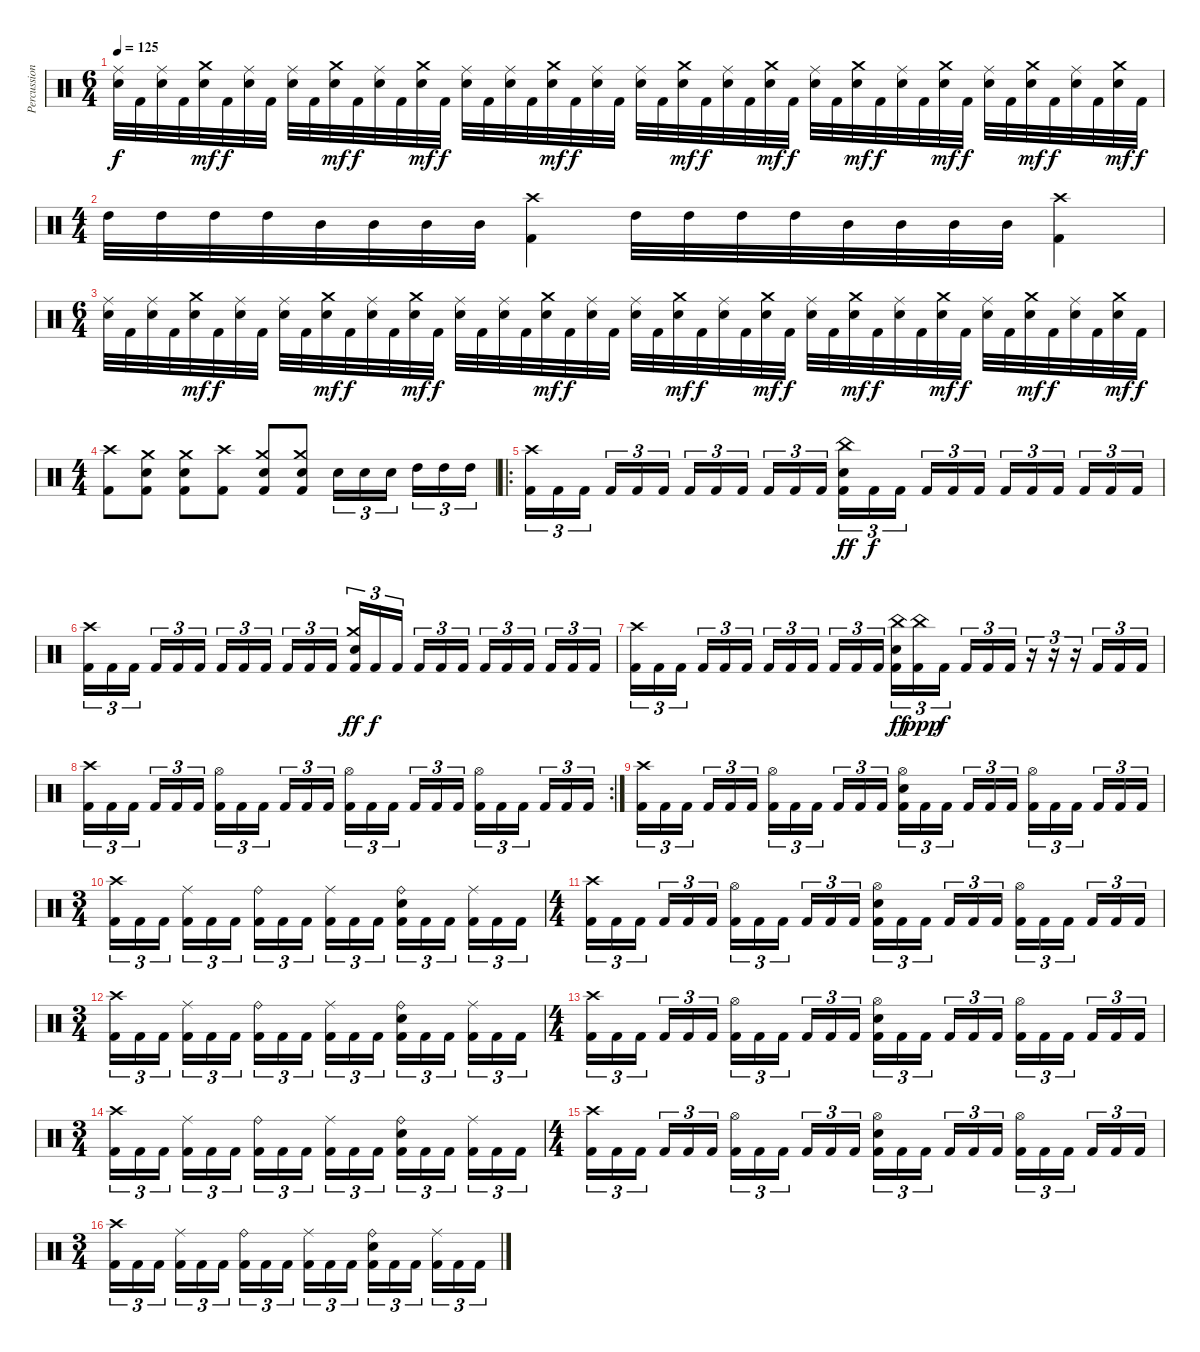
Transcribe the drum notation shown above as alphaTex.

\track ("Percussion" "Percussion") {instrument percussion}
\staff {score}
\articulation defaults
\ts (6 4)
\tempo 125
\clef neutral
\ks c
("Snare (hit) 2" "Ride (middle)").32{dy f} "Kick (hit) 2".32 ("Snare (hit) 2" "Ride (middle)").32 "Kick (hit) 2".32 ("Snare (hit) 2" "Crash medium (hit)").32{dy mf} "Kick (hit) 2".32{dy f} ("Snare (hit) 2" "Ride (middle)").32 "Kick (hit) 2".32 ("Snare (hit) 2" "Ride (middle)").32 "Kick (hit) 2".32 ("Snare (hit) 2" "Crash medium (hit)").32{dy mf} "Kick (hit) 2".32{dy f} ("Snare (hit) 2" "Ride (middle)").32 "Kick (hit) 2".32 ("Snare (hit) 2" "Crash medium (hit)").32{dy mf} "Kick (hit) 2".32{dy f} ("Snare (hit) 2" "Ride (middle)").32 "Kick (hit) 2".32 ("Snare (hit) 2" "Ride (middle)").32 "Kick (hit) 2".32 ("Snare (hit) 2" "Crash medium (hit)").32{dy mf} "Kick (hit) 2".32{dy f} ("Snare (hit) 2" "Ride (middle)").32 "Kick (hit) 2".32 ("Snare (hit) 2" "Ride (middle)").32 "Kick (hit) 2".32 ("Snare (hit) 2" "Crash medium (hit)").32{dy mf} "Kick (hit) 2".32{dy f} ("Snare (hit) 2" "Ride (middle)").32 "Kick (hit) 2".32 ("Snare (hit) 2" "Crash medium (hit)").32{dy mf} "Kick (hit) 2".32{dy f} ("Snare (hit) 2" "Ride (middle)").32 "Kick (hit) 2".32 ("Snare (hit) 2" "Crash medium (hit)").32{dy mf} "Kick (hit) 2".32{dy f} ("Snare (hit) 2" "Ride (middle)").32 "Kick (hit) 2".32 ("Snare (hit) 2" "Crash medium (hit)").32{dy mf} "Kick (hit) 2".32{dy f} ("Snare (hit) 2" "Ride (middle)").32 "Kick (hit) 2".32 ("Snare (hit) 2" "Crash medium (hit)").32{dy mf} "Kick (hit) 2".32{dy f} ("Snare (hit) 2" "Ride (middle)").32 "Kick (hit) 2".32 ("Snare (hit) 2" "Crash medium (hit)").32{dy mf} "Kick (hit) 2".32{dy f} |
\ts (4 4)
"High Tom (hit)".32 "High Tom (hit)".32 "High Tom (hit)".32 "High Tom (hit)".32 "Mid Tom (hit)".32 "Mid Tom (hit)".32 "Mid Tom (hit)".32 "Mid Tom (hit)".32 ("Crash high (hit)" "Kick (hit) 2").4 "High Tom (hit)".32 "High Tom (hit)".32 "High Tom (hit)".32 "High Tom (hit)".32 "Mid Tom (hit)".32 "Mid Tom (hit)".32 "Mid Tom (hit)".32 "Mid Tom (hit)".32 ("Crash high (hit)" "Kick (hit) 2").4 |
\ts (6 4)
("Electric Snare (hit)" "Ride (middle)").32 "Kick (hit) 2".32 ("Electric Snare (hit)" "Ride (middle)").32 "Kick (hit) 2".32 ("Electric Snare (hit)" "Crash medium (hit)").32{dy mf} "Kick (hit) 2".32{dy f} ("Electric Snare (hit)" "Ride (middle)").32 "Kick (hit) 2".32 ("Electric Snare (hit)" "Ride (middle)").32 "Kick (hit) 2".32 ("Electric Snare (hit)" "Crash medium (hit)").32{dy mf} "Kick (hit) 2".32{dy f} ("Electric Snare (hit)" "Ride (middle)").32 "Kick (hit) 2".32 ("Electric Snare (hit)" "Crash medium (hit)").32{dy mf} "Kick (hit) 2".32{dy f} ("Electric Snare (hit)" "Ride (middle)").32 "Kick (hit) 2".32 ("Electric Snare (hit)" "Ride (middle)").32 "Kick (hit) 2".32 ("Electric Snare (hit)" "Crash medium (hit)").32{dy mf} "Kick (hit) 2".32{dy f} ("Electric Snare (hit)" "Ride (middle)").32 "Kick (hit) 2".32 ("Electric Snare (hit)" "Ride (middle)").32 "Kick (hit) 2".32 ("Electric Snare (hit)" "Crash medium (hit)").32{dy mf} "Kick (hit) 2".32{dy f} ("Electric Snare (hit)" "Ride (middle)").32 "Kick (hit) 2".32 ("Electric Snare (hit)" "Crash medium (hit)").32{dy mf} "Kick (hit) 2".32{dy f} ("Electric Snare (hit)" "Ride (middle)").32 "Kick (hit) 2".32 ("Electric Snare (hit)" "Crash medium (hit)").32{dy mf} "Kick (hit) 2".32{dy f} ("Electric Snare (hit)" "Ride (middle)").32 "Kick (hit) 2".32 ("Electric Snare (hit)" "Crash medium (hit)").32{dy mf} "Kick (hit) 2".32{dy f} ("Electric Snare (hit)" "Ride (middle)").32 "Kick (hit) 2".32 ("Electric Snare (hit)" "Crash medium (hit)").32{dy mf} "Kick (hit) 2".32{dy f} ("Electric Snare (hit)" "Ride (middle)").32 "Kick (hit) 2".32 ("Electric Snare (hit)" "Crash medium (hit)").32{dy mf} "Kick (hit) 2".32{dy f} |
\ts (4 4)
("Crash high (hit)" "Kick (hit) 2").8 ("Kick (hit) 2" "Crash medium (hit)" "Electric Snare (hit)").8 ("Kick (hit) 2" "Crash medium (hit)" "Electric Snare (hit)").8 ("Crash high (hit)" "Kick (hit) 2").8 ("Kick (hit) 2" "Crash medium (hit)" "Electric Snare (hit)").8 ("Kick (hit) 2" "Crash medium (hit)" "Electric Snare (hit)").8 "Electric Snare (hit)".16{tu (3 2)} "Electric Snare (hit)".16{tu (3 2)} "Electric Snare (hit)".16{tu (3 2) beam splitsecondary} "High Tom (hit)".16{tu (3 2)} "High Tom (hit)".16{tu (3 2)} "High Tom (hit)".16{tu (3 2)} |
\ro
("Kick (hit) 2" "Crash high (hit)").16{tu (3 2)} "Kick (hit) 2".16{tu (3 2)} "Kick (hit) 2".16{tu (3 2) beam splitsecondary} "Kick (hit) 2".16{tu (3 2)} "Kick (hit) 2".16{tu (3 2)} "Kick (hit) 2".16{tu (3 2)} "Kick (hit) 2".16{tu (3 2)} "Kick (hit) 2".16{tu (3 2)} "Kick (hit) 2".16{tu (3 2) beam splitsecondary} "Kick (hit) 2".16{tu (3 2)} "Kick (hit) 2".16{tu (3 2)} "Kick (hit) 2".16{tu (3 2)} ("Kick (hit) 2" "China (hit)" "Electric Snare (hit)").16{tu (3 2) dy ff} "Kick (hit) 2".16{tu (3 2) dy f} "Kick (hit) 2".16{tu (3 2) beam splitsecondary} "Kick (hit) 2".16{tu (3 2)} "Kick (hit) 2".16{tu (3 2)} "Kick (hit) 2".16{tu (3 2)} "Kick (hit) 2".16{tu (3 2)} "Kick (hit) 2".16{tu (3 2)} "Kick (hit) 2".16{tu (3 2) beam splitsecondary} "Kick (hit) 2".16{tu (3 2)} "Kick (hit) 2".16{tu (3 2)} "Kick (hit) 2".16{tu (3 2)} |
("Kick (hit) 2" "Crash high (hit)").16{tu (3 2)} "Kick (hit) 2".16{tu (3 2)} "Kick (hit) 2".16{tu (3 2) beam splitsecondary} "Kick (hit) 2".16{tu (3 2)} "Kick (hit) 2".16{tu (3 2)} "Kick (hit) 2".16{tu (3 2)} "Kick (hit) 2".16{tu (3 2)} "Kick (hit) 2".16{tu (3 2)} "Kick (hit) 2".16{tu (3 2) beam splitsecondary} "Kick (hit) 2".16{tu (3 2)} "Kick (hit) 2".16{tu (3 2)} "Kick (hit) 2".16{tu (3 2)} ("Kick (hit) 2" "Crash medium (hit)" "Electric Snare (hit)").16{tu (3 2) dy ff} "Kick (hit) 2".16{tu (3 2) dy f} "Kick (hit) 2".16{tu (3 2) beam splitsecondary} "Kick (hit) 2".16{tu (3 2)} "Kick (hit) 2".16{tu (3 2)} "Kick (hit) 2".16{tu (3 2)} "Kick (hit) 2".16{tu (3 2)} "Kick (hit) 2".16{tu (3 2)} "Kick (hit) 2".16{tu (3 2) beam splitsecondary} "Kick (hit) 2".16{tu (3 2)} "Kick (hit) 2".16{tu (3 2)} "Kick (hit) 2".16{tu (3 2)} |
("Kick (hit) 2" "Crash high (hit)").16{tu (3 2)} "Kick (hit) 2".16{tu (3 2)} "Kick (hit) 2".16{tu (3 2) beam splitsecondary} "Kick (hit) 2".16{tu (3 2)} "Kick (hit) 2".16{tu (3 2)} "Kick (hit) 2".16{tu (3 2)} "Kick (hit) 2".16{tu (3 2)} "Kick (hit) 2".16{tu (3 2)} "Kick (hit) 2".16{tu (3 2) beam splitsecondary} "Kick (hit) 2".16{tu (3 2)} "Kick (hit) 2".16{tu (3 2)} "Kick (hit) 2".16{tu (3 2)} ("Kick (hit) 2" "China (hit)" "Electric Snare (hit)").16{tu (3 2) dy ff} ("Kick (hit) 2" "China (hit)").16{tu (3 2) dy ppp} "Kick (hit) 2".16{tu (3 2) dy f beam splitsecondary} "Kick (hit) 2".16{tu (3 2)} "Kick (hit) 2".16{tu (3 2)} "Kick (hit) 2".16{tu (3 2)} r.16{tu (3 2)} r.16{tu (3 2)} r.16{tu (3 2)} "Kick (hit) 2".16{tu (3 2)} "Kick (hit) 2".16{tu (3 2)} "Kick (hit) 2".16{tu (3 2)} |
\rc 2
("Kick (hit) 2" "Crash high (hit)").16{tu (3 2)} "Kick (hit) 2".16{tu (3 2)} "Kick (hit) 2".16{tu (3 2) beam splitsecondary} "Kick (hit) 2".16{tu (3 2)} "Kick (hit) 2".16{tu (3 2)} "Kick (hit) 2".16{tu (3 2)} ("Kick (hit) 2" "Hi-Hat (open)").16{tu (3 2)} "Kick (hit) 2".16{tu (3 2)} "Kick (hit) 2".16{tu (3 2) beam splitsecondary} "Kick (hit) 2".16{tu (3 2)} "Kick (hit) 2".16{tu (3 2)} "Kick (hit) 2".16{tu (3 2)} ("Kick (hit) 2" "Hi-Hat (open)").16{tu (3 2)} "Kick (hit) 2".16{tu (3 2)} "Kick (hit) 2".16{tu (3 2) beam splitsecondary} "Kick (hit) 2".16{tu (3 2)} "Kick (hit) 2".16{tu (3 2)} "Kick (hit) 2".16{tu (3 2)} ("Kick (hit) 2" "Hi-Hat (open)").16{tu (3 2)} "Kick (hit) 2".16{tu (3 2)} "Kick (hit) 2".16{tu (3 2) beam splitsecondary} "Kick (hit) 2".16{tu (3 2)} "Kick (hit) 2".16{tu (3 2)} "Kick (hit) 2".16{tu (3 2)} |
("Kick (hit) 2" "Crash high (hit)").16{tu (3 2)} "Kick (hit) 2".16{tu (3 2)} "Kick (hit) 2".16{tu (3 2) beam splitsecondary} "Kick (hit) 2".16{tu (3 2)} "Kick (hit) 2".16{tu (3 2)} "Kick (hit) 2".16{tu (3 2)} ("Kick (hit) 2" "Hi-Hat (open)").16{tu (3 2)} "Kick (hit) 2".16{tu (3 2)} "Kick (hit) 2".16{tu (3 2) beam splitsecondary} "Kick (hit) 2".16{tu (3 2)} "Kick (hit) 2".16{tu (3 2)} "Kick (hit) 2".16{tu (3 2)} ("Kick (hit) 2" "Hi-Hat (open)" "Electric Snare (hit)").16{tu (3 2)} "Kick (hit) 2".16{tu (3 2)} "Kick (hit) 2".16{tu (3 2) beam splitsecondary} "Kick (hit) 2".16{tu (3 2)} "Kick (hit) 2".16{tu (3 2)} "Kick (hit) 2".16{tu (3 2)} ("Kick (hit) 2" "Hi-Hat (open)").16{tu (3 2)} "Kick (hit) 2".16{tu (3 2)} "Kick (hit) 2".16{tu (3 2) beam splitsecondary} "Kick (hit) 2".16{tu (3 2)} "Kick (hit) 2".16{tu (3 2)} "Kick (hit) 2".16{tu (3 2)} |
\ts (3 4)
("Kick (hit) 2" "Crash high (hit)").16{tu (3 2)} "Kick (hit) 2".16{tu (3 2)} "Kick (hit) 2".16{tu (3 2) beam splitsecondary} ("Kick (hit) 2" "Ride (middle)").16{tu (3 2)} "Kick (hit) 2".16{tu (3 2)} "Kick (hit) 2".16{tu (3 2)} ("Kick (hit) 2" "Ride (bell)").16{tu (3 2)} "Kick (hit) 2".16{tu (3 2)} "Kick (hit) 2".16{tu (3 2) beam splitsecondary} ("Kick (hit) 2" "Ride (middle)").16{tu (3 2)} "Kick (hit) 2".16{tu (3 2)} "Kick (hit) 2".16{tu (3 2)} ("Kick (hit) 2" "Ride (bell)" "Electric Snare (hit)").16{tu (3 2)} "Kick (hit) 2".16{tu (3 2)} "Kick (hit) 2".16{tu (3 2) beam splitsecondary} ("Kick (hit) 2" "Ride (middle)").16{tu (3 2)} "Kick (hit) 2".16{tu (3 2)} "Kick (hit) 2".16{tu (3 2)} |
\ts (4 4)
("Kick (hit) 2" "Crash high (hit)").16{tu (3 2)} "Kick (hit) 2".16{tu (3 2)} "Kick (hit) 2".16{tu (3 2) beam splitsecondary} "Kick (hit) 2".16{tu (3 2)} "Kick (hit) 2".16{tu (3 2)} "Kick (hit) 2".16{tu (3 2)} ("Kick (hit) 2" "Hi-Hat (open)").16{tu (3 2)} "Kick (hit) 2".16{tu (3 2)} "Kick (hit) 2".16{tu (3 2) beam splitsecondary} "Kick (hit) 2".16{tu (3 2)} "Kick (hit) 2".16{tu (3 2)} "Kick (hit) 2".16{tu (3 2)} ("Kick (hit) 2" "Hi-Hat (open)" "Electric Snare (hit)").16{tu (3 2)} "Kick (hit) 2".16{tu (3 2)} "Kick (hit) 2".16{tu (3 2) beam splitsecondary} "Kick (hit) 2".16{tu (3 2)} "Kick (hit) 2".16{tu (3 2)} "Kick (hit) 2".16{tu (3 2)} ("Kick (hit) 2" "Hi-Hat (open)").16{tu (3 2)} "Kick (hit) 2".16{tu (3 2)} "Kick (hit) 2".16{tu (3 2) beam splitsecondary} "Kick (hit) 2".16{tu (3 2)} "Kick (hit) 2".16{tu (3 2)} "Kick (hit) 2".16{tu (3 2)} |
\ts (3 4)
("Kick (hit) 2" "Crash high (hit)").16{tu (3 2)} "Kick (hit) 2".16{tu (3 2)} "Kick (hit) 2".16{tu (3 2) beam splitsecondary} ("Kick (hit) 2" "Ride (middle)").16{tu (3 2)} "Kick (hit) 2".16{tu (3 2)} "Kick (hit) 2".16{tu (3 2)} ("Kick (hit) 2" "Ride (bell)").16{tu (3 2)} "Kick (hit) 2".16{tu (3 2)} "Kick (hit) 2".16{tu (3 2) beam splitsecondary} ("Kick (hit) 2" "Ride (middle)").16{tu (3 2)} "Kick (hit) 2".16{tu (3 2)} "Kick (hit) 2".16{tu (3 2)} ("Kick (hit) 2" "Ride (bell)" "Electric Snare (hit)").16{tu (3 2)} "Kick (hit) 2".16{tu (3 2)} "Kick (hit) 2".16{tu (3 2) beam splitsecondary} ("Kick (hit) 2" "Ride (middle)").16{tu (3 2)} "Kick (hit) 2".16{tu (3 2)} "Kick (hit) 2".16{tu (3 2)} |
\ts (4 4)
("Kick (hit) 2" "Crash high (hit)").16{tu (3 2)} "Kick (hit) 2".16{tu (3 2)} "Kick (hit) 2".16{tu (3 2) beam splitsecondary} "Kick (hit) 2".16{tu (3 2)} "Kick (hit) 2".16{tu (3 2)} "Kick (hit) 2".16{tu (3 2)} ("Kick (hit) 2" "Hi-Hat (open)").16{tu (3 2)} "Kick (hit) 2".16{tu (3 2)} "Kick (hit) 2".16{tu (3 2) beam splitsecondary} "Kick (hit) 2".16{tu (3 2)} "Kick (hit) 2".16{tu (3 2)} "Kick (hit) 2".16{tu (3 2)} ("Kick (hit) 2" "Hi-Hat (open)" "Electric Snare (hit)").16{tu (3 2)} "Kick (hit) 2".16{tu (3 2)} "Kick (hit) 2".16{tu (3 2) beam splitsecondary} "Kick (hit) 2".16{tu (3 2)} "Kick (hit) 2".16{tu (3 2)} "Kick (hit) 2".16{tu (3 2)} ("Kick (hit) 2" "Hi-Hat (open)").16{tu (3 2)} "Kick (hit) 2".16{tu (3 2)} "Kick (hit) 2".16{tu (3 2) beam splitsecondary} "Kick (hit) 2".16{tu (3 2)} "Kick (hit) 2".16{tu (3 2)} "Kick (hit) 2".16{tu (3 2)} |
\ts (3 4)
("Kick (hit) 2" "Crash high (hit)").16{tu (3 2)} "Kick (hit) 2".16{tu (3 2)} "Kick (hit) 2".16{tu (3 2) beam splitsecondary} ("Kick (hit) 2" "Ride (middle)").16{tu (3 2)} "Kick (hit) 2".16{tu (3 2)} "Kick (hit) 2".16{tu (3 2)} ("Kick (hit) 2" "Ride (bell)").16{tu (3 2)} "Kick (hit) 2".16{tu (3 2)} "Kick (hit) 2".16{tu (3 2) beam splitsecondary} ("Kick (hit) 2" "Ride (middle)").16{tu (3 2)} "Kick (hit) 2".16{tu (3 2)} "Kick (hit) 2".16{tu (3 2)} ("Kick (hit) 2" "Ride (bell)" "Electric Snare (hit)").16{tu (3 2)} "Kick (hit) 2".16{tu (3 2)} "Kick (hit) 2".16{tu (3 2) beam splitsecondary} ("Kick (hit) 2" "Ride (middle)").16{tu (3 2)} "Kick (hit) 2".16{tu (3 2)} "Kick (hit) 2".16{tu (3 2)} |
\ts (4 4)
("Kick (hit) 2" "Crash high (hit)").16{tu (3 2)} "Kick (hit) 2".16{tu (3 2)} "Kick (hit) 2".16{tu (3 2) beam splitsecondary} "Kick (hit) 2".16{tu (3 2)} "Kick (hit) 2".16{tu (3 2)} "Kick (hit) 2".16{tu (3 2)} ("Kick (hit) 2" "Hi-Hat (open)").16{tu (3 2)} "Kick (hit) 2".16{tu (3 2)} "Kick (hit) 2".16{tu (3 2) beam splitsecondary} "Kick (hit) 2".16{tu (3 2)} "Kick (hit) 2".16{tu (3 2)} "Kick (hit) 2".16{tu (3 2)} ("Kick (hit) 2" "Hi-Hat (open)" "Electric Snare (hit)").16{tu (3 2)} "Kick (hit) 2".16{tu (3 2)} "Kick (hit) 2".16{tu (3 2) beam splitsecondary} "Kick (hit) 2".16{tu (3 2)} "Kick (hit) 2".16{tu (3 2)} "Kick (hit) 2".16{tu (3 2)} ("Kick (hit) 2" "Hi-Hat (open)").16{tu (3 2)} "Kick (hit) 2".16{tu (3 2)} "Kick (hit) 2".16{tu (3 2) beam splitsecondary} "Kick (hit) 2".16{tu (3 2)} "Kick (hit) 2".16{tu (3 2)} "Kick (hit) 2".16{tu (3 2)} |
\ts (3 4)
("Kick (hit) 2" "Crash high (hit)").16{tu (3 2)} "Kick (hit) 2".16{tu (3 2)} "Kick (hit) 2".16{tu (3 2) beam splitsecondary} ("Kick (hit) 2" "Ride (middle)").16{tu (3 2)} "Kick (hit) 2".16{tu (3 2)} "Kick (hit) 2".16{tu (3 2)} ("Kick (hit) 2" "Ride (bell)").16{tu (3 2)} "Kick (hit) 2".16{tu (3 2)} "Kick (hit) 2".16{tu (3 2) beam splitsecondary} ("Kick (hit) 2" "Ride (middle)").16{tu (3 2)} "Kick (hit) 2".16{tu (3 2)} "Kick (hit) 2".16{tu (3 2)} ("Kick (hit) 2" "Ride (bell)" "Electric Snare (hit)").16{tu (3 2)} "Kick (hit) 2".16{tu (3 2)} "Kick (hit) 2".16{tu (3 2) beam splitsecondary} ("Kick (hit) 2" "Ride (middle)").16{tu (3 2)} "Kick (hit) 2".16{tu (3 2)} "Kick (hit) 2".16{tu (3 2)}
